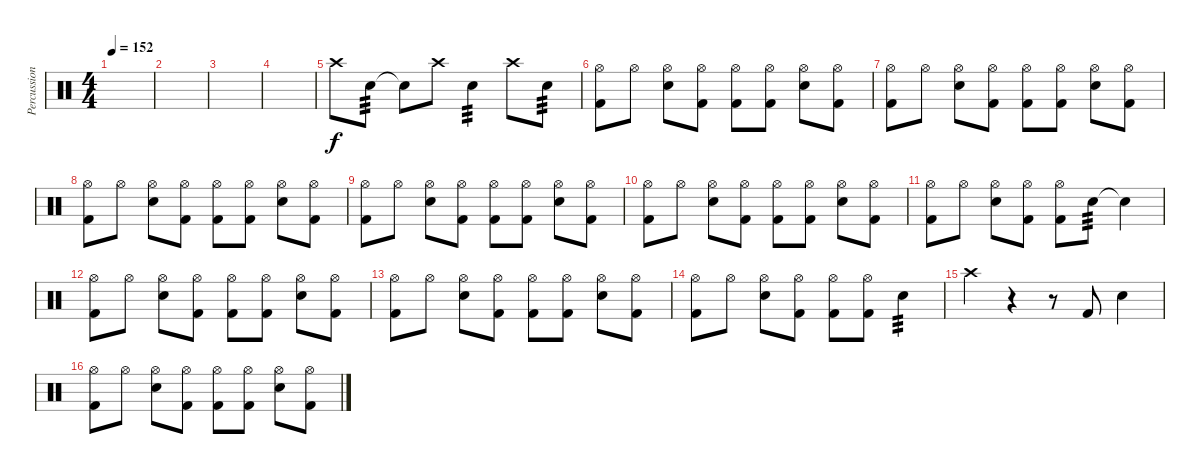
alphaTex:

\track ("Percussion" "Percussion") {instrument percussion}
\staff {score}
\articulation defaults
\ts (4 4)
\tempo 152
\clef neutral
\ks c
|
|
|
|
"Crash high (hit)".8 "Snare (hit) 2".8{tp 3} "Snare (hit)"{t}.8 "Crash high (hit)".8 "Snare (hit) 2".4{tp 3} "Crash high (hit)".8 "Snare (hit) 2".8{tp 3} |
("Kick (hit) 2" "Hi-Hat (open)").8 "Hi-Hat (open)".8 ("Snare (hit) 2" "Hi-Hat (open)").8 ("Kick (hit) 2" "Hi-Hat (open)").8 ("Kick (hit) 2" "Hi-Hat (open)").8 ("Kick (hit) 2" "Hi-Hat (open)").8 ("Snare (hit) 2" "Hi-Hat (open)").8 ("Kick (hit) 2" "Hi-Hat (open)").8 |
("Kick (hit) 2" "Hi-Hat (open)").8 "Hi-Hat (open)".8 ("Snare (hit) 2" "Hi-Hat (open)").8 ("Kick (hit) 2" "Hi-Hat (open)").8 ("Kick (hit) 2" "Hi-Hat (open)").8 ("Kick (hit) 2" "Hi-Hat (open)").8 ("Snare (hit) 2" "Hi-Hat (open)").8 ("Kick (hit) 2" "Hi-Hat (open)").8 |
("Kick (hit) 2" "Hi-Hat (open)").8 "Hi-Hat (open)".8 ("Snare (hit) 2" "Hi-Hat (open)").8 ("Kick (hit) 2" "Hi-Hat (open)").8 ("Kick (hit) 2" "Hi-Hat (open)").8 ("Kick (hit) 2" "Hi-Hat (open)").8 ("Snare (hit) 2" "Hi-Hat (open)").8 ("Kick (hit) 2" "Hi-Hat (open)").8 |
("Kick (hit) 2" "Hi-Hat (open)").8 "Hi-Hat (open)".8 ("Snare (hit) 2" "Hi-Hat (open)").8 ("Kick (hit) 2" "Hi-Hat (open)").8 ("Kick (hit) 2" "Hi-Hat (open)").8 ("Kick (hit) 2" "Hi-Hat (open)").8 ("Snare (hit) 2" "Hi-Hat (open)").8 ("Kick (hit) 2" "Hi-Hat (open)").8 |
("Kick (hit) 2" "Hi-Hat (open)").8 "Hi-Hat (open)".8 ("Snare (hit) 2" "Hi-Hat (open)").8 ("Kick (hit) 2" "Hi-Hat (open)").8 ("Kick (hit) 2" "Hi-Hat (open)").8 ("Kick (hit) 2" "Hi-Hat (open)").8 ("Snare (hit) 2" "Hi-Hat (open)").8 ("Kick (hit) 2" "Hi-Hat (open)").8 |
("Kick (hit) 2" "Hi-Hat (open)").8 "Hi-Hat (open)".8 ("Snare (hit) 2" "Hi-Hat (open)").8 ("Kick (hit) 2" "Hi-Hat (open)").8 ("Kick (hit) 2" "Hi-Hat (open)").8 "Snare (hit) 2".8{tp 3} "Snare (hit)"{t}.4 |
("Kick (hit) 2" "Hi-Hat (open)").8 "Hi-Hat (open)".8 ("Snare (hit) 2" "Hi-Hat (open)").8 ("Kick (hit) 2" "Hi-Hat (open)").8 ("Kick (hit) 2" "Hi-Hat (open)").8 ("Kick (hit) 2" "Hi-Hat (open)").8 ("Snare (hit) 2" "Hi-Hat (open)").8 ("Kick (hit) 2" "Hi-Hat (open)").8 |
("Kick (hit) 2" "Hi-Hat (open)").8 "Hi-Hat (open)".8 ("Snare (hit) 2" "Hi-Hat (open)").8 ("Kick (hit) 2" "Hi-Hat (open)").8 ("Kick (hit) 2" "Hi-Hat (open)").8 ("Kick (hit) 2" "Hi-Hat (open)").8 ("Snare (hit) 2" "Hi-Hat (open)").8 ("Kick (hit) 2" "Hi-Hat (open)").8 |
("Kick (hit) 2" "Hi-Hat (open)").8 "Hi-Hat (open)".8 ("Snare (hit) 2" "Hi-Hat (open)").8 ("Kick (hit) 2" "Hi-Hat (open)").8 ("Kick (hit) 2" "Hi-Hat (open)").8 ("Kick (hit) 2" "Hi-Hat (open)").8 "Snare (hit) 2".4{tp 3} |
"Crash high (hit)".4 r.4 r.8 "Kick (hit) 2".8 "Snare (hit) 2".4 |
("Kick (hit) 2" "Hi-Hat (open)").8 "Hi-Hat (open)".8 ("Snare (hit) 2" "Hi-Hat (open)").8 ("Kick (hit) 2" "Hi-Hat (open)").8 ("Kick (hit) 2" "Hi-Hat (open)").8 ("Kick (hit) 2" "Hi-Hat (open)").8 ("Snare (hit) 2" "Hi-Hat (open)").8 ("Kick (hit) 2" "Hi-Hat (open)").8
